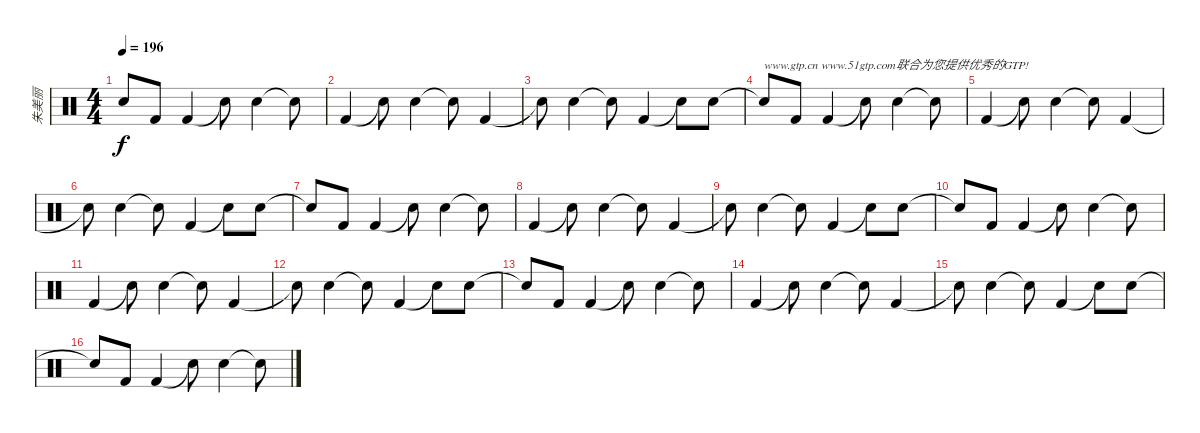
\track ("朱美丽" "朱美丽") {instrument percussion}
\staff {score}
\articulation defaults
\ts (4 4)
\tempo 196
\clef neutral
\ks c "Snare (hit)"{t}.8{dy f} "Kick (hit) 2".8 "Kick (hit) 2".4 "Snare (hit)"{t}.8 "Electric Snare (hit)".4 "Snare (hit)"{t}.8
|
"Kick (hit) 2".4 "Snare (hit)"{t}.8 "Electric Snare (hit)".4 "Snare (hit)"{t}.8 "Kick (hit) 2".4 |
"Snare (hit)"{t}.8 "Electric Snare (hit)".4 "Snare (hit)"{t}.8 "Kick (hit) 2".4 "Snare (hit)"{t}.8 "Electric Snare (hit)".8 |
"Snare (hit)"{t}.8{txt "www.gtp.cn www.51gtp.com联合为您提供优秀的GTP!"} "Kick (hit) 2".8 "Kick (hit) 2".4 "Snare (hit)"{t}.8 "Electric Snare (hit)".4 "Snare (hit)"{t}.8 |
"Kick (hit) 2".4 "Snare (hit)"{t}.8 "Electric Snare (hit)".4 "Snare (hit)"{t}.8 "Kick (hit) 2".4 |
"Snare (hit)"{t}.8 "Electric Snare (hit)".4 "Snare (hit)"{t}.8 "Kick (hit) 2".4 "Snare (hit)"{t}.8 "Electric Snare (hit)".8 |
"Snare (hit)"{t}.8 "Kick (hit) 2".8 "Kick (hit) 2".4 "Snare (hit)"{t}.8 "Electric Snare (hit)".4 "Snare (hit)"{t}.8 |
"Kick (hit) 2".4 "Snare (hit)"{t}.8 "Electric Snare (hit)".4 "Snare (hit)"{t}.8 "Kick (hit) 2".4 |
"Snare (hit)"{t}.8 "Electric Snare (hit)".4 "Snare (hit)"{t}.8 "Kick (hit) 2".4 "Snare (hit)"{t}.8 "Electric Snare (hit)".8 |
"Snare (hit)"{t}.8 "Kick (hit) 2".8 "Kick (hit) 2".4 "Snare (hit)"{t}.8 "Electric Snare (hit)".4 "Snare (hit)"{t}.8 |
"Kick (hit) 2".4 "Snare (hit)"{t}.8 "Electric Snare (hit)".4 "Snare (hit)"{t}.8 "Kick (hit) 2".4 |
"Snare (hit)"{t}.8 "Electric Snare (hit)".4 "Snare (hit)"{t}.8 "Kick (hit) 2".4 "Snare (hit)"{t}.8 "Electric Snare (hit)".8 |
"Snare (hit)"{t}.8 "Kick (hit) 2".8 "Kick (hit) 2".4 "Snare (hit)"{t}.8 "Electric Snare (hit)".4 "Snare (hit)"{t}.8 |
"Kick (hit) 2".4 "Snare (hit)"{t}.8 "Electric Snare (hit)".4 "Snare (hit)"{t}.8 "Kick (hit) 2".4 |
"Snare (hit)"{t}.8 "Electric Snare (hit)".4 "Snare (hit)"{t}.8 "Kick (hit) 2".4 "Snare (hit)"{t}.8 "Electric Snare (hit)".8 |
"Snare (hit)"{t}.8 "Kick (hit) 2".8 "Kick (hit) 2".4 "Snare (hit)"{t}.8 "Electric Snare (hit)".4 "Snare (hit)"{t}.8
